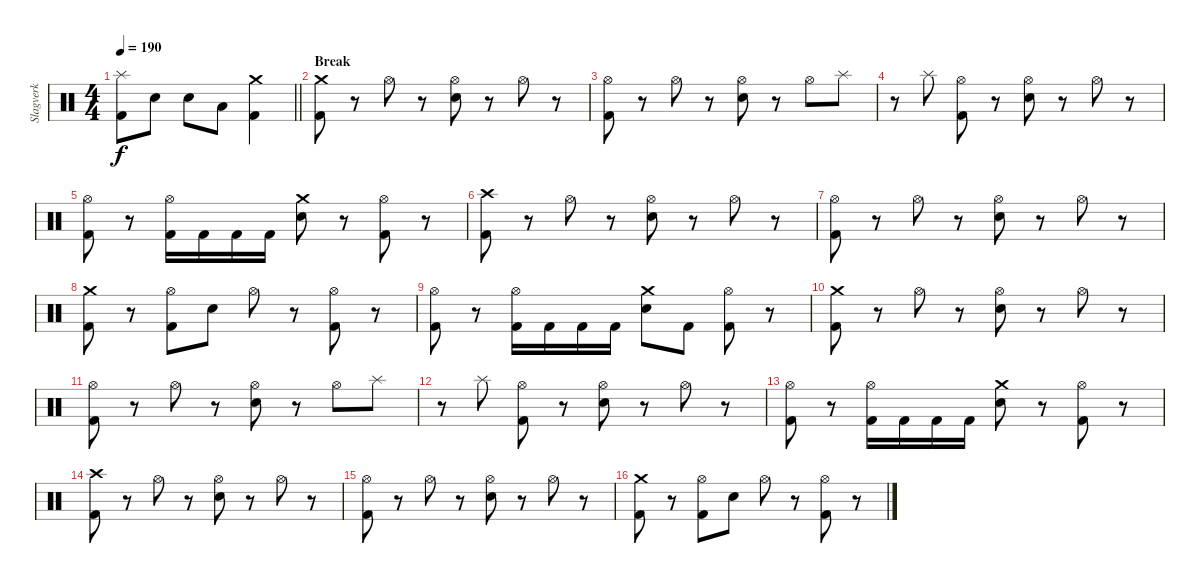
\track ("Slagverk" "Slagverk") {instrument percussion}
\staff {score}
\articulation defaults
\ts (4 4)
\tempo 190
\clef neutral
\barLineRight lightlight
\ks c
("Splash (hit)" "Kick (hit) 2").8{dy f} "Electric Snare (hit)".8 "Electric Snare (hit)".8 "Low Tom (hit)".8 ("Crash medium (hit)" "Kick (hit) 2").4 |
\section ("" "Break")
("Crash medium (hit)" "Kick (hit) 2").8 r.8 "Hi-Hat (open)".8 r.8 ("Hi-Hat (open)" "Electric Snare (hit)").8 r.8 "Hi-Hat (open)".8 r.8 |
("Hi-Hat (open)" "Kick (hit) 2").8 r.8 "Hi-Hat (open)".8 r.8 ("Hi-Hat (open)" "Electric Snare (hit)").8 r.8 "Hi-Hat (open)".8 "Splash (hit)".8 |
r.8 "Splash (hit)".8 ("Hi-Hat (open)" "Kick (hit) 2").8 r.8 ("Hi-Hat (open)" "Electric Snare (hit)").8 r.8 "Hi-Hat (open)".8 r.8 |
("Hi-Hat (open)" "Kick (hit) 2").8 r.8 ("Hi-Hat (open)" "Kick (hit) 2").16 "Kick (hit) 2".16 "Kick (hit) 2".16 "Kick (hit) 2".16 ("Crash medium (hit)" "Electric Snare (hit)").8 r.8 ("Hi-Hat (open)" "Kick (hit) 2").8 r.8 |
("Crash high (hit)" "Kick (hit) 2").8 r.8 "Hi-Hat (open)".8 r.8 ("Hi-Hat (open)" "Electric Snare (hit)").8 r.8 "Hi-Hat (open)".8 r.8 |
("Hi-Hat (open)" "Kick (hit) 2").8 r.8 "Hi-Hat (open)".8 r.8 ("Hi-Hat (open)" "Electric Snare (hit)").8 r.8 "Hi-Hat (open)".8 r.8 |
("Crash medium (hit)" "Kick (hit) 2").8 r.8 ("Hi-Hat (open)" "Kick (hit) 2").8 "Electric Snare (hit)".8 "Hi-Hat (open)".8 r.8 ("Hi-Hat (open)" "Kick (hit) 2").8 r.8 |
("Hi-Hat (open)" "Kick (hit) 2").8 r.8 ("Hi-Hat (open)" "Kick (hit) 2").16 "Kick (hit) 2".16 "Kick (hit) 2".16 "Kick (hit) 2".16 ("Crash medium (hit)" "Electric Snare (hit)").8 "Kick (hit) 2".8 ("Hi-Hat (open)" "Kick (hit) 2").8 r.8 |
("Crash medium (hit)" "Kick (hit) 2").8 r.8 "Hi-Hat (open)".8 r.8 ("Hi-Hat (open)" "Electric Snare (hit)").8 r.8 "Hi-Hat (open)".8 r.8 |
("Hi-Hat (open)" "Kick (hit) 2").8 r.8 "Hi-Hat (open)".8 r.8 ("Hi-Hat (open)" "Electric Snare (hit)").8 r.8 "Hi-Hat (open)".8 "Splash (hit)".8 |
r.8 "Splash (hit)".8 ("Hi-Hat (open)" "Kick (hit) 2").8 r.8 ("Hi-Hat (open)" "Electric Snare (hit)").8 r.8 "Hi-Hat (open)".8 r.8 |
("Hi-Hat (open)" "Kick (hit) 2").8 r.8 ("Hi-Hat (open)" "Kick (hit) 2").16 "Kick (hit) 2".16 "Kick (hit) 2".16 "Kick (hit) 2".16 ("Crash medium (hit)" "Electric Snare (hit)").8 r.8 ("Hi-Hat (open)" "Kick (hit) 2").8 r.8 |
("Crash high (hit)" "Kick (hit) 2").8 r.8 "Hi-Hat (open)".8 r.8 ("Hi-Hat (open)" "Electric Snare (hit)").8 r.8 "Hi-Hat (open)".8 r.8 |
("Hi-Hat (open)" "Kick (hit) 2").8 r.8 "Hi-Hat (open)".8 r.8 ("Hi-Hat (open)" "Electric Snare (hit)").8 r.8 "Hi-Hat (open)".8 r.8 |
("Crash medium (hit)" "Kick (hit) 2").8 r.8 ("Hi-Hat (open)" "Kick (hit) 2").8 "Electric Snare (hit)".8 "Hi-Hat (open)".8 r.8 ("Hi-Hat (open)" "Kick (hit) 2").8 r.8
